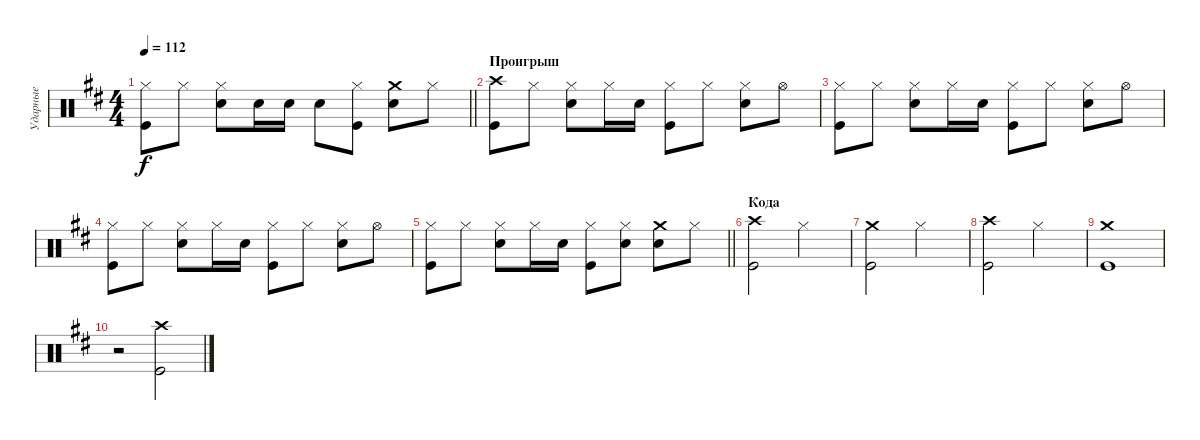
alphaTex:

\track ("Ударные" "Ударные") {instrument percussion}
\staff {score}
\articulation defaults
\ts (4 4)
\tempo 112
\clef neutral
\barLineRight lightlight
\ks bminor
("Hi-Hat (closed)" "Kick (hit)").8{dy f} "Hi-Hat (closed)".8 ("Hi-Hat (closed)" "Electric Snare (hit)").8 "Electric Snare (hit)".16 "Electric Snare (hit)".16 "Electric Snare (hit)".8 ("Hi-Hat (closed)" "Kick (hit)").8 ("Crash medium (hit)" "Electric Snare (hit)").8 "Hi-Hat (closed)".8 |
\section ("" "Проигрыш")
("Crash high (hit)" "Kick (hit)").8 "Hi-Hat (closed)".8 ("Hi-Hat (closed)" "Electric Snare (hit)").8 "Hi-Hat (closed)".16 "Electric Snare (hit)".16 ("Hi-Hat (closed)" "Kick (hit)").8 "Hi-Hat (closed)".8 ("Hi-Hat (closed)" "Electric Snare (hit)").8 "Hi-Hat (open)".8 |
("Hi-Hat (closed)" "Kick (hit)").8 "Hi-Hat (closed)".8 ("Hi-Hat (closed)" "Electric Snare (hit)").8 "Hi-Hat (closed)".16 "Electric Snare (hit)".16 ("Hi-Hat (closed)" "Kick (hit)").8 "Hi-Hat (closed)".8 ("Hi-Hat (closed)" "Electric Snare (hit)").8 "Hi-Hat (open)".8 |
("Hi-Hat (closed)" "Kick (hit)").8 "Hi-Hat (closed)".8 ("Hi-Hat (closed)" "Electric Snare (hit)").8 "Hi-Hat (closed)".16 "Electric Snare (hit)".16 ("Hi-Hat (closed)" "Kick (hit)").8 "Hi-Hat (closed)".8 ("Hi-Hat (closed)" "Electric Snare (hit)").8 "Hi-Hat (open)".8 |
\barLineRight lightlight
("Hi-Hat (closed)" "Kick (hit)").8 "Hi-Hat (closed)".8 ("Hi-Hat (closed)" "Electric Snare (hit)").8 "Hi-Hat (closed)".16 "Electric Snare (hit)".16 ("Hi-Hat (closed)" "Kick (hit)").8 ("Hi-Hat (closed)" "Electric Snare (hit)").8 ("Crash medium (hit)" "Electric Snare (hit)").8 "Hi-Hat (closed)".8 |
\section ("" "Кода")
("Crash high (hit)" "Kick (hit)").2 "Hi-Hat (closed)".2 |
("Crash medium (hit)" "Kick (hit)").2 "Hi-Hat (closed)".2 |
("Crash high (hit)" "Kick (hit)").2 "Hi-Hat (closed)".2 |
("Crash medium (hit)" "Kick (hit)").1 |
r.2 ("Crash high (hit)" "Kick (hit)").2
